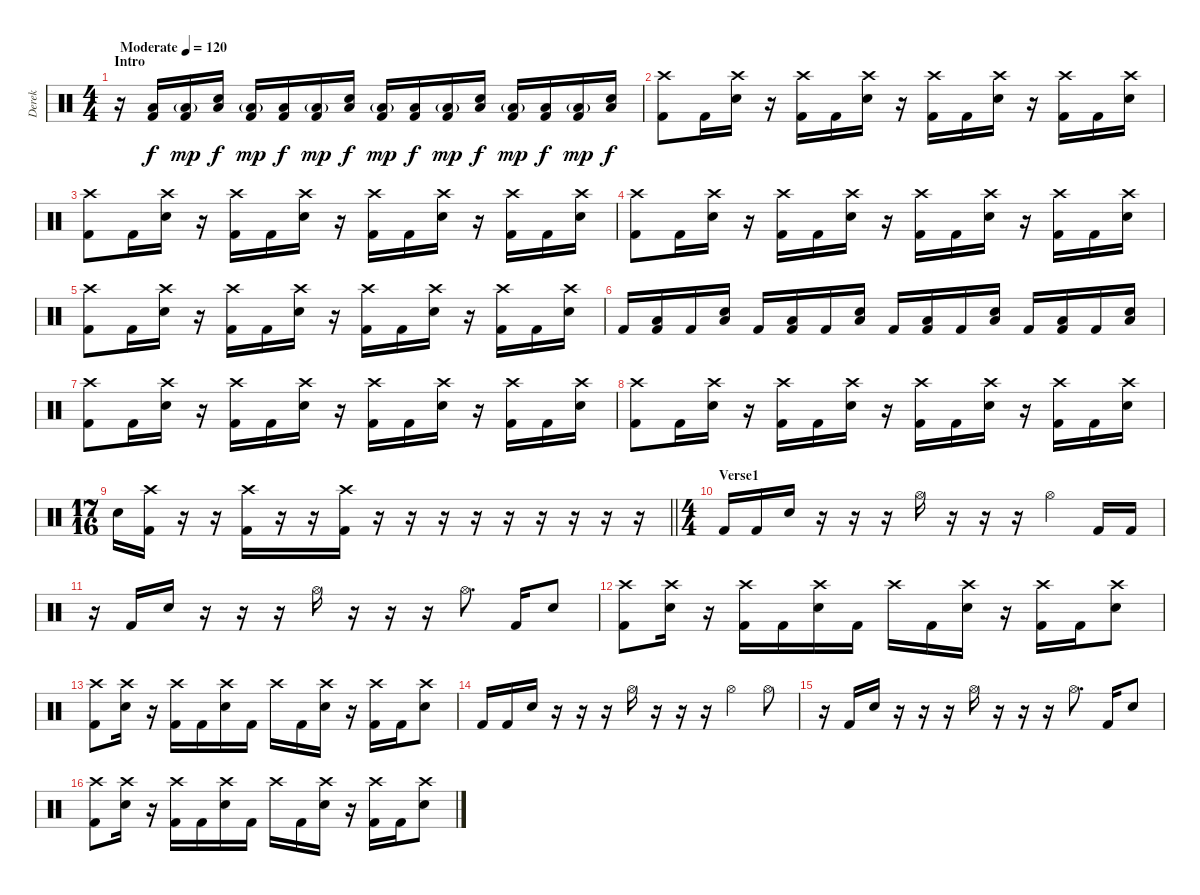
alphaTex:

\track ("Derek" "Derek") {instrument percussion}
\staff {score}
\articulation defaults
\ts (4 4)
\section ("" "Intro")
\tempo (120 "Moderate")
\clef neutral
\ks c
r.16{dy f} ("Low Floor Tom (hit)" "Kick (hit) 2").16 ("Low Floor Tom (hit)"{g} "Kick (hit) 2").16{dy mp} ("Low Floor Tom (hit)" "Electric Snare (hit)").16{dy f} ("Low Floor Tom (hit)"{g} "Kick (hit) 2").16{dy mp} ("Low Floor Tom (hit)" "Kick (hit) 2").16{dy f} ("Low Floor Tom (hit)"{g} "Kick (hit) 2").16{dy mp} ("Low Floor Tom (hit)" "Electric Snare (hit)").16{dy f} ("Low Floor Tom (hit)"{g} "Kick (hit) 2").16{dy mp} ("Low Floor Tom (hit)" "Kick (hit) 2").16{dy f} ("Low Floor Tom (hit)"{g} "Kick (hit) 2").16{dy mp} ("Low Floor Tom (hit)" "Electric Snare (hit)").16{dy f} ("Low Floor Tom (hit)"{g} "Kick (hit) 2").16{dy mp} ("Low Floor Tom (hit)" "Kick (hit) 2").16{dy f} ("Low Floor Tom (hit)"{g} "Kick (hit) 2").16{dy mp} ("Low Floor Tom (hit)" "Electric Snare (hit)").16{dy f} |
("Crash high (hit)" "Kick (hit) 2").8 "Kick (hit) 2".16 ("Crash high (hit)" "Electric Snare (hit)").16 r.16 ("Crash high (hit)" "Kick (hit) 2").16 "Kick (hit) 2".16 ("Crash high (hit)" "Electric Snare (hit)").16 r.16 ("Crash high (hit)" "Kick (hit) 2").16 "Kick (hit) 2".16 ("Crash high (hit)" "Electric Snare (hit)").16 r.16 ("Crash high (hit)" "Kick (hit) 2").16 "Kick (hit) 2".16 ("Crash high (hit)" "Electric Snare (hit)").16 |
("Crash high (hit)" "Kick (hit) 2").8 "Kick (hit) 2".16 ("Crash high (hit)" "Electric Snare (hit)").16 r.16 ("Crash high (hit)" "Kick (hit) 2").16 "Kick (hit) 2".16 ("Crash high (hit)" "Electric Snare (hit)").16 r.16 ("Crash high (hit)" "Kick (hit) 2").16 "Kick (hit) 2".16 ("Crash high (hit)" "Electric Snare (hit)").16 r.16 ("Crash high (hit)" "Kick (hit) 2").16 "Kick (hit) 2".16 ("Crash high (hit)" "Electric Snare (hit)").16 |
("Crash high (hit)" "Kick (hit) 2").8 "Kick (hit) 2".16 ("Crash high (hit)" "Electric Snare (hit)").16 r.16 ("Crash high (hit)" "Kick (hit) 2").16 "Kick (hit) 2".16 ("Crash high (hit)" "Electric Snare (hit)").16 r.16 ("Crash high (hit)" "Kick (hit) 2").16 "Kick (hit) 2".16 ("Crash high (hit)" "Electric Snare (hit)").16 r.16 ("Crash high (hit)" "Kick (hit) 2").16 "Kick (hit) 2".16 ("Crash high (hit)" "Electric Snare (hit)").16 |
("Crash high (hit)" "Kick (hit) 2").8 "Kick (hit) 2".16 ("Crash high (hit)" "Electric Snare (hit)").16 r.16 ("Crash high (hit)" "Kick (hit) 2").16 "Kick (hit) 2".16 ("Crash high (hit)" "Electric Snare (hit)").16 r.16 ("Crash high (hit)" "Kick (hit) 2").16 "Kick (hit) 2".16 ("Crash high (hit)" "Electric Snare (hit)").16 r.16 ("Crash high (hit)" "Kick (hit) 2").16 "Kick (hit) 2".16 ("Crash high (hit)" "Electric Snare (hit)").16 |
"Kick (hit) 2".16 ("Low Floor Tom (hit)" "Kick (hit) 2").16 "Kick (hit) 2".16 ("Low Floor Tom (hit)" "Electric Snare (hit)").16 "Kick (hit) 2".16 ("Low Floor Tom (hit)" "Kick (hit) 2").16 "Kick (hit) 2".16 ("Low Floor Tom (hit)" "Electric Snare (hit)").16 "Kick (hit) 2".16 ("Low Floor Tom (hit)" "Kick (hit) 2").16 "Kick (hit) 2".16 ("Low Floor Tom (hit)" "Electric Snare (hit)").16 "Kick (hit) 2".16 ("Low Floor Tom (hit)" "Kick (hit) 2").16 "Kick (hit) 2".16 ("Low Floor Tom (hit)" "Electric Snare (hit)").16 |
("Crash high (hit)" "Kick (hit) 2").8 "Kick (hit) 2".16 ("Crash high (hit)" "Electric Snare (hit)").16 r.16 ("Crash high (hit)" "Kick (hit) 2").16 "Kick (hit) 2".16 ("Crash high (hit)" "Electric Snare (hit)").16 r.16 ("Crash high (hit)" "Kick (hit) 2").16 "Kick (hit) 2".16 ("Crash high (hit)" "Electric Snare (hit)").16 r.16 ("Crash high (hit)" "Kick (hit) 2").16 "Kick (hit) 2".16 ("Crash high (hit)" "Electric Snare (hit)").16 |
("Crash high (hit)" "Kick (hit) 2").8 "Kick (hit) 2".16 ("Crash high (hit)" "Electric Snare (hit)").16 r.16 ("Crash high (hit)" "Kick (hit) 2").16 "Kick (hit) 2".16 ("Crash high (hit)" "Electric Snare (hit)").16 r.16 ("Crash high (hit)" "Kick (hit) 2").16 "Kick (hit) 2".16 ("Crash high (hit)" "Electric Snare (hit)").16 r.16 ("Crash high (hit)" "Kick (hit) 2").16 "Kick (hit) 2".16 ("Crash high (hit)" "Electric Snare (hit)").16 |
\ts (17 16)
\barLineRight lightlight "Electric Snare (hit)".16
("Crash high (hit)" "Kick (hit) 2").16 r.16 r.16 ("Crash high (hit)" "Kick (hit) 2").16 r.16 r.16 ("Crash high (hit)" "Kick (hit) 2").16 r.16 r.16 r.16 r.16 r.16 r.16 r.16 r.16 r.16 |
\ts (4 4)
\section ("" "Verse1")
"Kick (hit) 2".16 "Kick (hit) 2".16 "Electric Snare (hit)".16 r.16 r.16 r.16 "Hi-Hat (open)".16 r.16 r.16 r.16 "Hi-Hat (open)".4 "Kick (hit) 2".16 "Kick (hit) 2".16 |
r.16 "Kick (hit) 2".16 "Electric Snare (hit)".16 r.16 r.16 r.16 "Hi-Hat (open)".16 r.16 r.16 r.16 "Hi-Hat (open)".8{d} "Kick (hit) 2".16 "Electric Snare (hit)".8 |
("Crash high (hit)" "Kick (hit) 2").8 ("Crash high (hit)" "Electric Snare (hit)").16 r.16 ("Crash high (hit)" "Kick (hit) 2").16 "Kick (hit) 2".16 ("Crash high (hit)" "Electric Snare (hit)").16 "Kick (hit) 2".16 "Crash high (hit)".16 "Kick (hit) 2".16 ("Crash high (hit)" "Electric Snare (hit)").16 r.16 ("Crash high (hit)" "Kick (hit) 2").16 "Kick (hit) 2".16 ("Crash high (hit)" "Electric Snare (hit)").8 |
("Crash high (hit)" "Kick (hit) 2").8 ("Crash high (hit)" "Electric Snare (hit)").16 r.16 ("Crash high (hit)" "Kick (hit) 2").16 "Kick (hit) 2".16 ("Crash high (hit)" "Electric Snare (hit)").16 "Kick (hit) 2".16 "Crash high (hit)".16 "Kick (hit) 2".16 ("Crash high (hit)" "Electric Snare (hit)").16 r.16 ("Crash high (hit)" "Kick (hit) 2").16 "Kick (hit) 2".16 ("Crash high (hit)" "Electric Snare (hit)").8 |
"Kick (hit) 2".16 "Kick (hit) 2".16 "Electric Snare (hit)".16 r.16 r.16 r.16 "Hi-Hat (open)".16 r.16 r.16 r.16 "Hi-Hat (open)".4 "Hi-Hat (open)".8 |
r.16 "Kick (hit) 2".16 "Electric Snare (hit)".16 r.16 r.16 r.16 "Hi-Hat (open)".16 r.16 r.16 r.16 "Hi-Hat (open)".8{d} "Kick (hit) 2".16 "Electric Snare (hit)".8 |
("Crash high (hit)" "Kick (hit) 2").8 ("Crash high (hit)" "Electric Snare (hit)").16 r.16 ("Crash high (hit)" "Kick (hit) 2").16 "Kick (hit) 2".16 ("Crash high (hit)" "Electric Snare (hit)").16 "Kick (hit) 2".16 "Crash high (hit)".16 "Kick (hit) 2".16 ("Crash high (hit)" "Electric Snare (hit)").16 r.16 ("Crash high (hit)" "Kick (hit) 2").16 "Kick (hit) 2".16 ("Crash high (hit)" "Electric Snare (hit)").8
